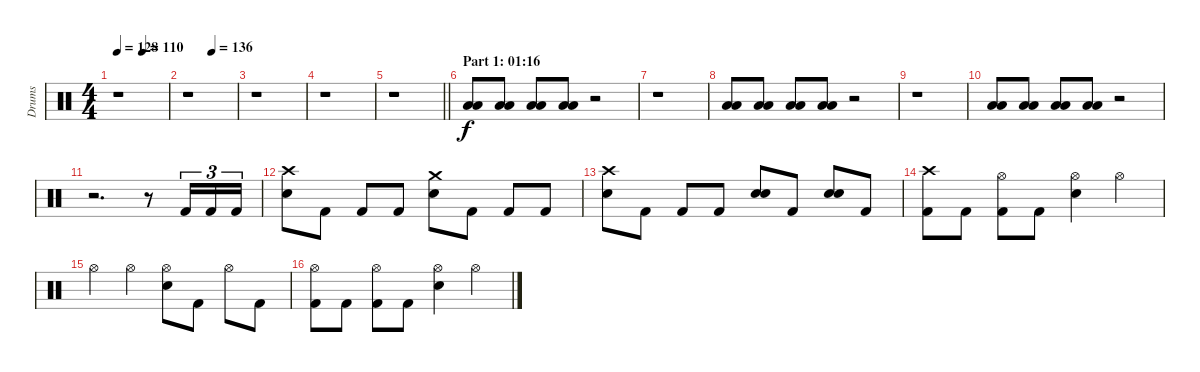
\track ("Drums" "Drums") {instrument percussion}
\staff {score}
\articulation defaults
\ts (4 4)
\tempo 128
\tempo (110 0.5)
\clef neutral
\ks c
r.1{dy f} |
\tempo (136 0.5)
r.1 |
r.1 |
r.1 |
\barLineRight lightlight
r.1 |
\section ("" "Part 1: 01:16")
("Low Tom (hit)" "Low Floor Tom (hit)").8 ("Low Tom (hit)" "Low Floor Tom (hit)").8 ("Low Tom (hit)" "Low Floor Tom (hit)").8 ("Low Tom (hit)" "Low Floor Tom (hit)").8 r.2 |
r.1 |
("Low Tom (hit)" "Low Floor Tom (hit)").8 ("Low Tom (hit)" "Low Floor Tom (hit)").8 ("Low Tom (hit)" "Low Floor Tom (hit)").8 ("Low Tom (hit)" "Low Floor Tom (hit)").8 r.2 |
r.1 |
("Low Tom (hit)" "Low Floor Tom (hit)").8 ("Low Tom (hit)" "Low Floor Tom (hit)").8 ("Low Tom (hit)" "Low Floor Tom (hit)").8 ("Low Tom (hit)" "Low Floor Tom (hit)").8 r.2 |
r.2{d} r.8 "Kick (hit) 2".16{tu (3 2)} "Kick (hit) 2".16{tu (3 2)} "Kick (hit) 2".16{tu (3 2)} |
("Crash high (hit)" "Electric Snare (hit)").8 "Kick (hit) 2".8 "Kick (hit) 2".8 "Kick (hit) 2".8 ("Crash medium (hit)" "Electric Snare (hit)").8 "Kick (hit) 2".8 "Kick (hit) 2".8 "Kick (hit) 2".8 |
("Crash high (hit)" "Electric Snare (hit)").8 "Kick (hit) 2".8 "Kick (hit) 2".8 "Kick (hit) 2".8 ("Electric Snare (hit)" "Electric Snare (hit)").8{bd 240} "Kick (hit) 2".8 ("Electric Snare (hit)" "Electric Snare (hit)").8{bd 240} "Kick (hit) 2".8 |
("Crash high (hit)" "Kick (hit) 2").8 "Kick (hit) 2".8 ("Hi-Hat (open)" "Kick (hit) 2").8 "Kick (hit) 2".8 ("Hi-Hat (open)" "Electric Snare (hit)").4 "Hi-Hat (open)".4 |
"Hi-Hat (open)".4 "Hi-Hat (open)".4 ("Hi-Hat (open)" "Electric Snare (hit)").8 "Kick (hit) 2".8 "Hi-Hat (open)".8 "Kick (hit) 2".8 |
("Hi-Hat (open)" "Kick (hit) 2").8 "Kick (hit) 2".8 ("Hi-Hat (open)" "Kick (hit) 2").8 "Kick (hit) 2".8 ("Hi-Hat (open)" "Electric Snare (hit)").4 "Hi-Hat (open)".4
